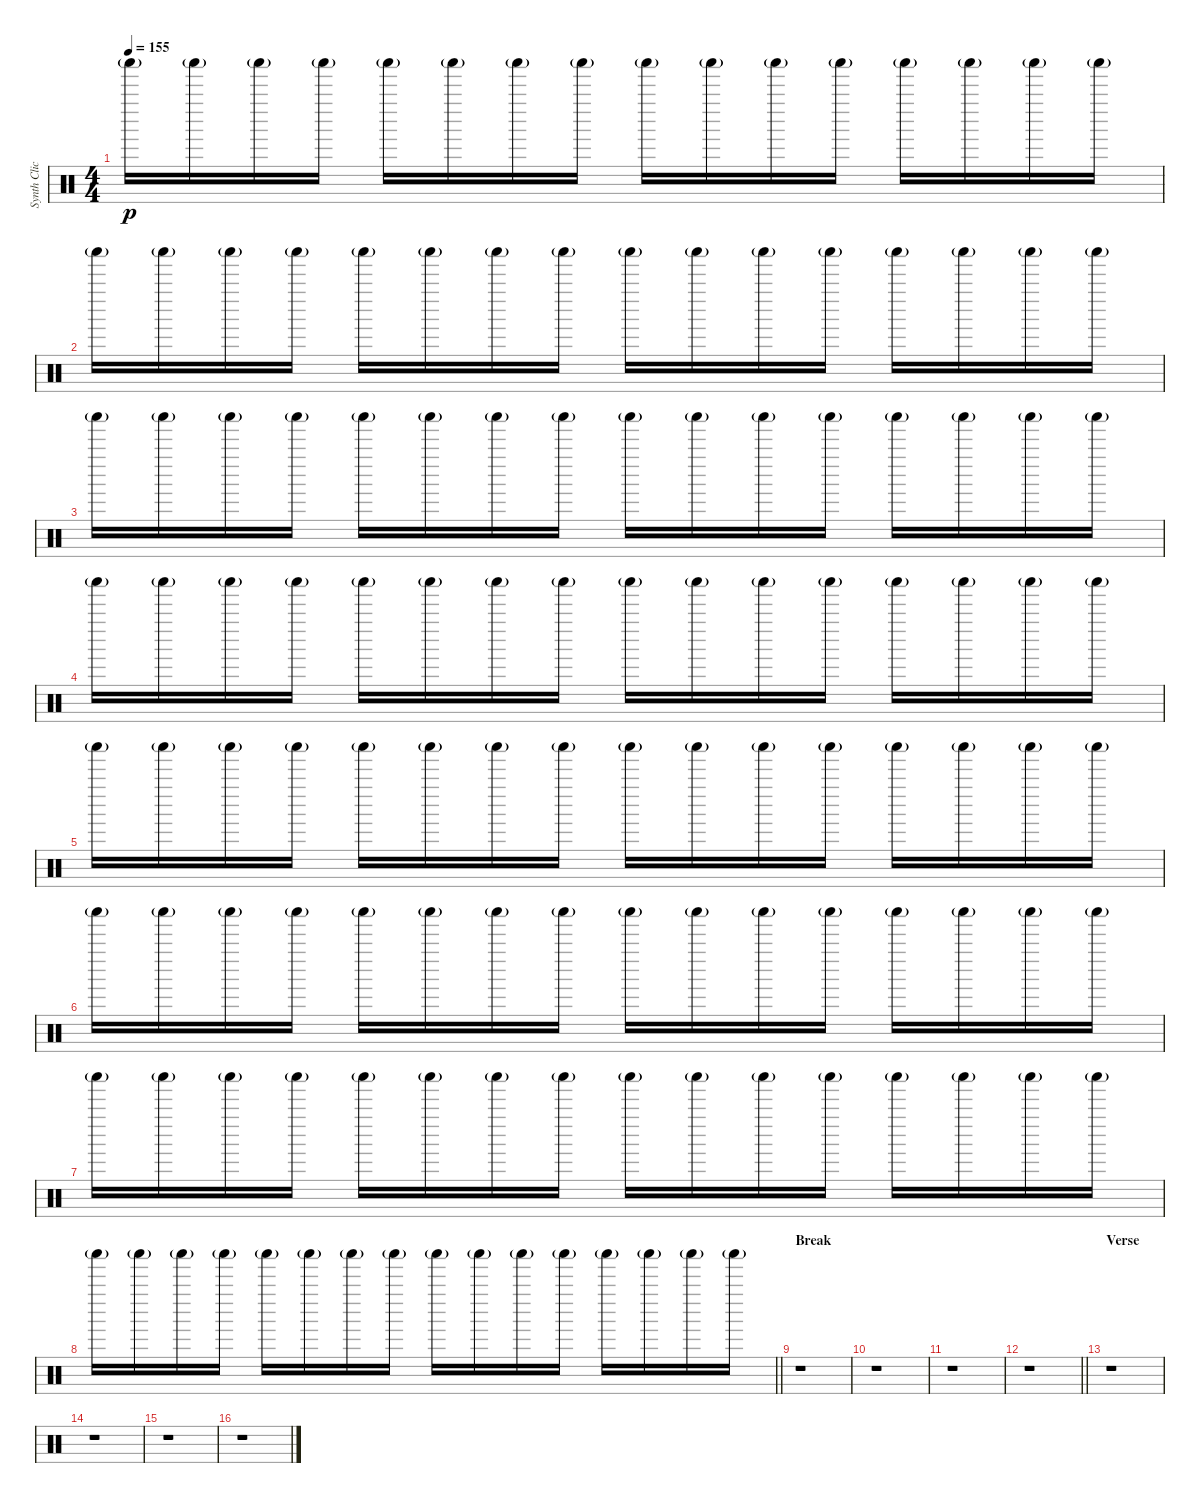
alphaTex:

\track ("Synth Click" "Synth Clic") {instrument percussion}
\staff {score}
\articulation defaults
\ts (4 4)
\tempo 155
\clef neutral
\ks c "Shaker (hit)"{g}.16{dy p} "Shaker (hit)"{g}.16 "Shaker (hit)"{g}.16 "Shaker (hit)"{g}.16 "Shaker (hit)"{g}.16 "Shaker (hit)"{g}.16 "Shaker (hit)"{g}.16 "Shaker (hit)"{g}.16 "Shaker (hit)"{g}.16 "Shaker (hit)"{g}.16 "Shaker (hit)"{g}.16 "Shaker (hit)"{g}.16 "Shaker (hit)"{g}.16 "Shaker (hit)"{g}.16 "Shaker (hit)"{g}.16 "Shaker (hit)"{g}.16
|
"Shaker (hit)"{g}.16 "Shaker (hit)"{g}.16 "Shaker (hit)"{g}.16 "Shaker (hit)"{g}.16 "Shaker (hit)"{g}.16 "Shaker (hit)"{g}.16 "Shaker (hit)"{g}.16 "Shaker (hit)"{g}.16 "Shaker (hit)"{g}.16 "Shaker (hit)"{g}.16 "Shaker (hit)"{g}.16 "Shaker (hit)"{g}.16 "Shaker (hit)"{g}.16 "Shaker (hit)"{g}.16 "Shaker (hit)"{g}.16 "Shaker (hit)"{g}.16 |
"Shaker (hit)"{g}.16 "Shaker (hit)"{g}.16 "Shaker (hit)"{g}.16 "Shaker (hit)"{g}.16 "Shaker (hit)"{g}.16 "Shaker (hit)"{g}.16 "Shaker (hit)"{g}.16 "Shaker (hit)"{g}.16 "Shaker (hit)"{g}.16 "Shaker (hit)"{g}.16 "Shaker (hit)"{g}.16 "Shaker (hit)"{g}.16 "Shaker (hit)"{g}.16 "Shaker (hit)"{g}.16 "Shaker (hit)"{g}.16 "Shaker (hit)"{g}.16 |
"Shaker (hit)"{g}.16 "Shaker (hit)"{g}.16 "Shaker (hit)"{g}.16 "Shaker (hit)"{g}.16 "Shaker (hit)"{g}.16 "Shaker (hit)"{g}.16 "Shaker (hit)"{g}.16 "Shaker (hit)"{g}.16 "Shaker (hit)"{g}.16 "Shaker (hit)"{g}.16 "Shaker (hit)"{g}.16 "Shaker (hit)"{g}.16 "Shaker (hit)"{g}.16 "Shaker (hit)"{g}.16 "Shaker (hit)"{g}.16 "Shaker (hit)"{g}.16 |
"Shaker (hit)"{g}.16 "Shaker (hit)"{g}.16 "Shaker (hit)"{g}.16 "Shaker (hit)"{g}.16 "Shaker (hit)"{g}.16 "Shaker (hit)"{g}.16 "Shaker (hit)"{g}.16 "Shaker (hit)"{g}.16 "Shaker (hit)"{g}.16 "Shaker (hit)"{g}.16 "Shaker (hit)"{g}.16 "Shaker (hit)"{g}.16 "Shaker (hit)"{g}.16 "Shaker (hit)"{g}.16 "Shaker (hit)"{g}.16 "Shaker (hit)"{g}.16 |
"Shaker (hit)"{g}.16 "Shaker (hit)"{g}.16 "Shaker (hit)"{g}.16 "Shaker (hit)"{g}.16 "Shaker (hit)"{g}.16 "Shaker (hit)"{g}.16 "Shaker (hit)"{g}.16 "Shaker (hit)"{g}.16 "Shaker (hit)"{g}.16 "Shaker (hit)"{g}.16 "Shaker (hit)"{g}.16 "Shaker (hit)"{g}.16 "Shaker (hit)"{g}.16 "Shaker (hit)"{g}.16 "Shaker (hit)"{g}.16 "Shaker (hit)"{g}.16 |
"Shaker (hit)"{g}.16 "Shaker (hit)"{g}.16 "Shaker (hit)"{g}.16 "Shaker (hit)"{g}.16 "Shaker (hit)"{g}.16 "Shaker (hit)"{g}.16 "Shaker (hit)"{g}.16 "Shaker (hit)"{g}.16 "Shaker (hit)"{g}.16 "Shaker (hit)"{g}.16 "Shaker (hit)"{g}.16 "Shaker (hit)"{g}.16 "Shaker (hit)"{g}.16 "Shaker (hit)"{g}.16 "Shaker (hit)"{g}.16 "Shaker (hit)"{g}.16 |
\barLineRight lightlight "Shaker (hit)"{g}.16 "Shaker (hit)"{g}.16 "Shaker (hit)"{g}.16 "Shaker (hit)"{g}.16 "Shaker (hit)"{g}.16 "Shaker (hit)"{g}.16 "Shaker (hit)"{g}.16 "Shaker (hit)"{g}.16 "Shaker (hit)"{g}.16 "Shaker (hit)"{g}.16 "Shaker (hit)"{g}.16 "Shaker (hit)"{g}.16 "Shaker (hit)"{g}.16 "Shaker (hit)"{g}.16 "Shaker (hit)"{g}.16 "Shaker (hit)"{g}.16
|
\section ("" "Break")
r.1 |
r.1 |
r.1 |
\barLineRight lightlight
r.1 |
\section ("" "Verse")
r.1 |
r.1 |
r.1 |
r.1
